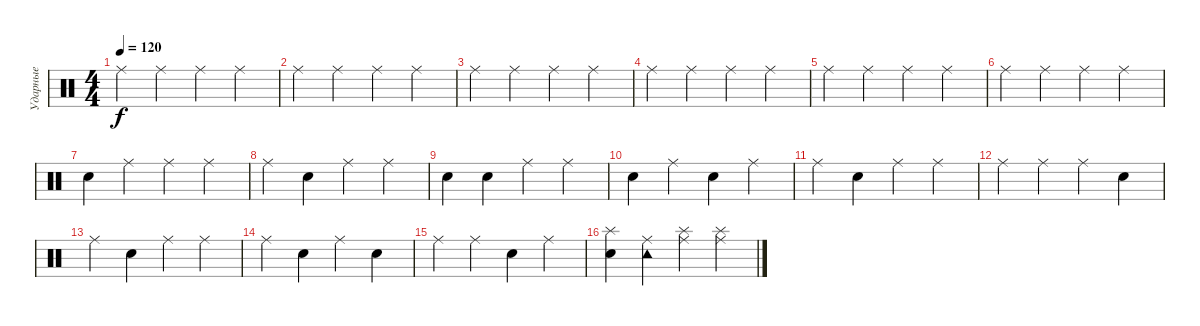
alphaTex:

\track ("Ударные" "Ударные") {instrument percussion}
\staff {score}
\articulation defaults
\ts (4 4)
\tempo 120
\clef neutral
\ks c "Ride (middle)".4{dy f} "Ride (middle)".4 "Ride (middle)".4 "Ride (middle)".4
|
"Ride (middle)".4 "Ride (middle)".4 "Ride (middle)".4 "Ride (middle)".4 |
"Ride (middle)".4 "Ride (middle)".4 "Ride (middle)".4 "Ride (middle)".4 |
"Ride (middle)".4 "Ride (middle)".4 "Ride (middle)".4 "Ride (middle)".4 |
"Ride (middle)".4 "Ride (middle)".4 "Ride (middle)".4 "Ride (middle)".4 |
"Ride (middle)".4 "Ride (middle)".4 "Ride (middle)".4 "Ride (middle)".4 |
"Snare (hit) 2".4 "Ride (middle)".4 "Ride (middle)".4 "Ride (middle)".4 |
"Ride (middle)".4 "Snare (hit) 2".4 "Ride (middle)".4 "Ride (middle)".4 |
"Snare (hit) 2".4 "Snare (hit) 2".4 "Ride (middle)".4 "Ride (middle)".4 |
"Snare (hit) 2".4 "Ride (middle)".4 "Snare (hit) 2".4 "Ride (middle)".4 |
"Ride (middle)".4 "Snare (hit) 2".4 "Ride (middle)".4 "Ride (middle)".4 |
"Ride (middle)".4 "Ride (middle)".4 "Ride (middle)".4 "Snare (hit) 2".4 |
"Ride (middle)".4 "Snare (hit) 2".4 "Ride (middle)".4 "Ride (middle)".4 |
"Ride (middle)".4 "Snare (hit) 2".4 "Ride (middle)".4 "Snare (hit) 2".4 |
"Ride (middle)".4 "Ride (middle)".4 "Snare (hit) 2".4 "Ride (middle)".4 |
("Snare (hit) 2" "Splash (hit)").4 ("Ride (middle)" "Tambourine (hit)").4 ("Ride (middle)" "Splash (hit)").4 ("Ride (middle)" "Splash (hit)").4
